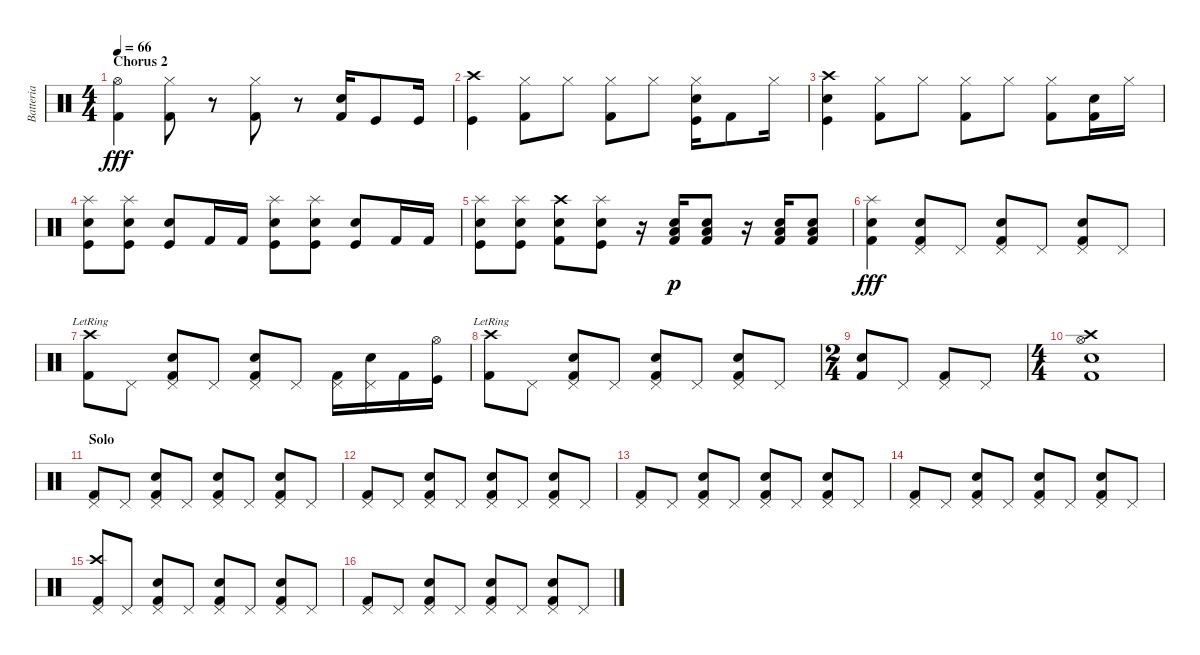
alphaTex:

\track ("Batteria" "Batteria") {instrument percussion}
\staff {score}
\articulation defaults
\ts (4 4)
\section ("" "Chorus 2")
\tempo 66
\clef neutral
\ks c
("Hi-Hat (open)" "Kick (hit) 2").4{dy fff} ("Hi-Hat (closed)" "Kick (hit) 2").8 r.8 ("Hi-Hat (closed)" "Kick (hit) 2").8 r.8 ("Snare (hit) 2" "Kick (hit) 2").16 "Kick (hit)".8 "Kick (hit)".16 |
("Crash high (hit)" "Kick (hit)").4 ("Hi-Hat (closed)" "Kick (hit) 2").8 "Hi-Hat (closed)".8 ("Hi-Hat (closed)" "Kick (hit) 2").8 "Hi-Hat (closed)".8 ("Hi-Hat (closed)" "Snare (hit) 2" "Kick (hit)").16 "Kick (hit) 2".8 "Hi-Hat (closed)".16 |
("Crash high (hit)" "Snare (hit) 2" "Kick (hit)").4 ("Hi-Hat (closed)" "Kick (hit) 2").8 "Hi-Hat (closed)".8 ("Hi-Hat (closed)" "Kick (hit) 2").8 "Hi-Hat (closed)".8 ("Hi-Hat (closed)" "Kick (hit) 2").8 ("Snare (hit) 2" "Kick (hit) 2").16 "Hi-Hat (closed)".16 |
("Splash (hit)" "Snare (hit) 2" "Kick (hit)").8 ("Splash (hit)" "Snare (hit) 2" "Kick (hit)").8 ("Snare (hit) 2" "Kick (hit)").8 "Kick (hit) 2".16 "Kick (hit) 2".16 ("Splash (hit)" "Snare (hit) 2" "Kick (hit)").8 ("Splash (hit)" "Snare (hit) 2" "Kick (hit)").8 ("Snare (hit) 2" "Kick (hit)").8 "Kick (hit) 2".16 "Kick (hit) 2".16 |
("Splash (hit)" "Snare (hit) 2" "Kick (hit)").8 ("Splash (hit)" "Snare (hit) 2" "Kick (hit)").8 ("Crash high (hit)" "Snare (hit) 2" "Kick (hit) 2").8 ("Splash (hit)" "Snare (hit) 2" "Kick (hit)").8 r.16 ("Low Floor Tom (hit)" "Snare (hit) 2" "Kick (hit) 2").16{dy p} ("Low Floor Tom (hit)" "Snare (hit) 2" "Kick (hit) 2").8 r.16 ("Low Floor Tom (hit)" "Snare (hit) 2" "Kick (hit) 2").16 ("Low Floor Tom (hit)" "Snare (hit) 2" "Kick (hit) 2").8 |
("Splash (hit)" "Snare (hit) 2" "Kick (hit) 2").4{dy fff} ("Pedal Hi-Hat (hit)" "Snare (hit) 2" "Kick (hit) 2").8 "Pedal Hi-Hat (hit)".8 ("Pedal Hi-Hat (hit)" "Snare (hit) 2" "Kick (hit) 2").8 "Pedal Hi-Hat (hit)".8 ("Pedal Hi-Hat (hit)" "Snare (hit) 2" "Kick (hit) 2").8 "Pedal Hi-Hat (hit)".8 |
("Crash high (hit)"{lr} "Kick (hit) 2").8 "Pedal Hi-Hat (hit)".8 ("Pedal Hi-Hat (hit)" "Snare (hit) 2" "Kick (hit) 2").8 "Pedal Hi-Hat (hit)".8 ("Pedal Hi-Hat (hit)" "Snare (hit) 2" "Kick (hit) 2").8 "Pedal Hi-Hat (hit)".8 ("Pedal Hi-Hat (hit)" "Kick (hit) 2").16 ("Pedal Hi-Hat (hit)" "Snare (hit) 2").16 "Kick (hit) 2".16 ("Hi-Hat (open)" "Kick (hit)").16 |
("Crash high (hit)"{lr} "Kick (hit) 2").8 "Pedal Hi-Hat (hit)".8 ("Pedal Hi-Hat (hit)" "Snare (hit) 2" "Kick (hit) 2").8 "Pedal Hi-Hat (hit)".8 ("Pedal Hi-Hat (hit)" "Snare (hit) 2" "Kick (hit) 2").8 "Pedal Hi-Hat (hit)".8 ("Pedal Hi-Hat (hit)" "Snare (hit) 2" "Kick (hit) 2").8 "Pedal Hi-Hat (hit)".8 |
\ts (2 4)
("Snare (hit) 2" "Kick (hit) 2").8 "Pedal Hi-Hat (hit)".8 ("Pedal Hi-Hat (hit)" "Kick (hit) 2").8 "Pedal Hi-Hat (hit)".8 |
\ts (4 4)
("Crash high (hit)" "Hi-Hat (open)" "Kick (hit) 2" "Snare (hit) 2").1 |
\section ("" "Solo")
("Pedal Hi-Hat (hit)" "Kick (hit) 2").8 "Pedal Hi-Hat (hit)".8 ("Pedal Hi-Hat (hit)" "Snare (hit) 2" "Kick (hit) 2").8 "Pedal Hi-Hat (hit)".8 ("Pedal Hi-Hat (hit)" "Snare (hit) 2" "Kick (hit) 2").8 "Pedal Hi-Hat (hit)".8 ("Pedal Hi-Hat (hit)" "Snare (hit) 2" "Kick (hit) 2").8 "Pedal Hi-Hat (hit)".8 |
("Pedal Hi-Hat (hit)" "Kick (hit) 2").8 "Pedal Hi-Hat (hit)".8 ("Pedal Hi-Hat (hit)" "Snare (hit) 2" "Kick (hit) 2").8 "Pedal Hi-Hat (hit)".8 ("Pedal Hi-Hat (hit)" "Snare (hit) 2" "Kick (hit) 2").8 "Pedal Hi-Hat (hit)".8 ("Pedal Hi-Hat (hit)" "Snare (hit) 2" "Kick (hit) 2").8 "Pedal Hi-Hat (hit)".8 |
("Pedal Hi-Hat (hit)" "Kick (hit) 2").8 "Pedal Hi-Hat (hit)".8 ("Pedal Hi-Hat (hit)" "Snare (hit) 2" "Kick (hit) 2").8 "Pedal Hi-Hat (hit)".8 ("Pedal Hi-Hat (hit)" "Snare (hit) 2" "Kick (hit) 2").8 "Pedal Hi-Hat (hit)".8 ("Pedal Hi-Hat (hit)" "Snare (hit) 2" "Kick (hit) 2").8 "Pedal Hi-Hat (hit)".8 |
("Pedal Hi-Hat (hit)" "Kick (hit) 2").8 "Pedal Hi-Hat (hit)".8 ("Pedal Hi-Hat (hit)" "Snare (hit) 2" "Kick (hit) 2").8 "Pedal Hi-Hat (hit)".8 ("Pedal Hi-Hat (hit)" "Snare (hit) 2" "Kick (hit) 2").8 "Pedal Hi-Hat (hit)".8 ("Pedal Hi-Hat (hit)" "Snare (hit) 2" "Kick (hit) 2").8 "Pedal Hi-Hat (hit)".8 |
("Crash high (hit)" "Pedal Hi-Hat (hit)" "Kick (hit) 2").8 "Pedal Hi-Hat (hit)".8 ("Pedal Hi-Hat (hit)" "Snare (hit) 2" "Kick (hit) 2").8 "Pedal Hi-Hat (hit)".8 ("Pedal Hi-Hat (hit)" "Snare (hit) 2" "Kick (hit) 2").8 "Pedal Hi-Hat (hit)".8 ("Pedal Hi-Hat (hit)" "Snare (hit) 2" "Kick (hit) 2").8 "Pedal Hi-Hat (hit)".8 |
("Pedal Hi-Hat (hit)" "Kick (hit) 2").8 "Pedal Hi-Hat (hit)".8 ("Pedal Hi-Hat (hit)" "Snare (hit) 2" "Kick (hit) 2").8 "Pedal Hi-Hat (hit)".8 ("Pedal Hi-Hat (hit)" "Snare (hit) 2" "Kick (hit) 2").8 "Pedal Hi-Hat (hit)".8 ("Pedal Hi-Hat (hit)" "Snare (hit) 2" "Kick (hit) 2").8 "Pedal Hi-Hat (hit)".8
